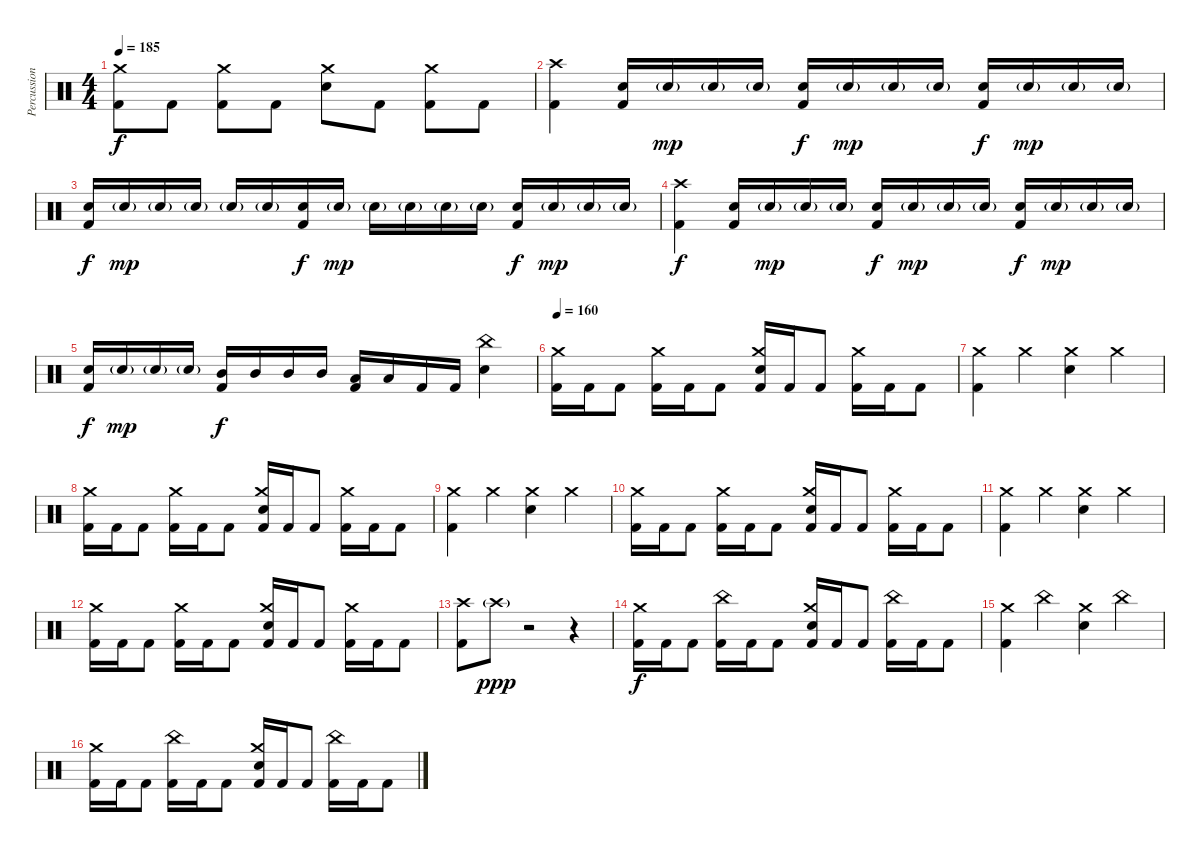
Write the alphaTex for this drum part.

\track ("Percussion" "Percussion") {instrument percussion}
\staff {score}
\articulation defaults
\ts (4 4)
\tempo 185
\clef neutral
\ks c
("Kick (hit) 2" "Crash medium (hit)").8{dy f} "Kick (hit) 2".8 ("Kick (hit) 2" "Crash medium (hit)").8 "Kick (hit) 2".8 ("Electric Snare (hit)" "Crash medium (hit)").8 "Kick (hit) 2".8 ("Kick (hit) 2" "Crash medium (hit)").8 "Kick (hit) 2".8 |
("Kick (hit) 2" "Crash high (hit)").4 ("Kick (hit) 2" "Electric Snare (hit)").16 "Electric Snare (hit)"{g}.16{dy mp} "Electric Snare (hit)"{g}.16 "Electric Snare (hit)"{g}.16 ("Kick (hit) 2" "Electric Snare (hit)").16{dy f} "Electric Snare (hit)"{g}.16{dy mp} "Electric Snare (hit)"{g}.16 "Electric Snare (hit)"{g}.16 ("Kick (hit) 2" "Electric Snare (hit)").16{dy f} "Electric Snare (hit)"{g}.16{dy mp} "Electric Snare (hit)"{g}.16 "Electric Snare (hit)"{g}.16 |
("Kick (hit) 2" "Electric Snare (hit)").16{dy f} "Electric Snare (hit)"{g}.16{dy mp} "Electric Snare (hit)"{g}.16 "Electric Snare (hit)"{g}.16 "Electric Snare (hit)"{g}.16 "Electric Snare (hit)"{g}.16 ("Kick (hit) 2" "Electric Snare (hit)").16{dy f} "Electric Snare (hit)"{g}.16{dy mp} "Electric Snare (hit)"{g}.16 "Electric Snare (hit)"{g}.16 "Electric Snare (hit)"{g}.16 "Electric Snare (hit)"{g}.16 ("Kick (hit) 2" "Electric Snare (hit)").16{dy f} "Electric Snare (hit)"{g}.16{dy mp} "Electric Snare (hit)"{g}.16 "Electric Snare (hit)"{g}.16 |
("Kick (hit) 2" "Crash high (hit)").4{dy f} ("Kick (hit) 2" "Electric Snare (hit)").16 "Electric Snare (hit)"{g}.16{dy mp} "Electric Snare (hit)"{g}.16 "Electric Snare (hit)"{g}.16 ("Kick (hit) 2" "Electric Snare (hit)").16{dy f} "Electric Snare (hit)"{g}.16{dy mp} "Electric Snare (hit)"{g}.16 "Electric Snare (hit)"{g}.16 ("Kick (hit) 2" "Electric Snare (hit)").16{dy f} "Electric Snare (hit)"{g}.16{dy mp} "Electric Snare (hit)"{g}.16 "Electric Snare (hit)"{g}.16 |
("Kick (hit) 2" "Electric Snare (hit)").16{dy f} "Electric Snare (hit)"{g}.16{dy mp} "Electric Snare (hit)"{g}.16 "Electric Snare (hit)"{g}.16 ("Kick (hit) 2" "Mid Tom (hit)").16{dy f} "Mid Tom (hit)".16 "Mid Tom (hit)".16 "Mid Tom (hit)".16 ("Kick (hit) 2" "Low Tom (hit)").16 "Low Tom (hit)".16 "Kick (hit) 2".16 "Kick (hit) 2".16 ("Electric Snare (hit)" "China (hit)").4 |
\tempo 160
("Kick (hit) 2" "Crash medium (hit)").16 "Kick (hit) 2".16 "Kick (hit) 2".8 ("Kick (hit) 2" "Crash medium (hit)").16 "Kick (hit) 2".16 "Kick (hit) 2".8 ("Kick (hit) 2" "Electric Snare (hit)" "Crash medium (hit)").16 "Kick (hit) 2".16 "Kick (hit) 2".8 ("Kick (hit) 2" "Crash medium (hit)").16 "Kick (hit) 2".16 "Kick (hit) 2".8 |
("Kick (hit) 2" "Crash medium (hit)").4 "Crash medium (hit)".4 ("Electric Snare (hit)" "Crash medium (hit)").4 "Crash medium (hit)".4 |
("Kick (hit) 2" "Crash medium (hit)").16 "Kick (hit) 2".16 "Kick (hit) 2".8 ("Kick (hit) 2" "Crash medium (hit)").16 "Kick (hit) 2".16 "Kick (hit) 2".8 ("Kick (hit) 2" "Electric Snare (hit)" "Crash medium (hit)").16 "Kick (hit) 2".16 "Kick (hit) 2".8 ("Kick (hit) 2" "Crash medium (hit)").16 "Kick (hit) 2".16 "Kick (hit) 2".8 |
("Kick (hit) 2" "Crash medium (hit)").4 "Crash medium (hit)".4 ("Electric Snare (hit)" "Crash medium (hit)").4 "Crash medium (hit)".4 |
("Kick (hit) 2" "Crash medium (hit)").16 "Kick (hit) 2".16 "Kick (hit) 2".8 ("Kick (hit) 2" "Crash medium (hit)").16 "Kick (hit) 2".16 "Kick (hit) 2".8 ("Kick (hit) 2" "Electric Snare (hit)" "Crash medium (hit)").16 "Kick (hit) 2".16 "Kick (hit) 2".8 ("Kick (hit) 2" "Crash medium (hit)").16 "Kick (hit) 2".16 "Kick (hit) 2".8 |
("Kick (hit) 2" "Crash medium (hit)").4 "Crash medium (hit)".4 ("Electric Snare (hit)" "Crash medium (hit)").4 "Crash medium (hit)".4 |
("Kick (hit) 2" "Crash medium (hit)").16 "Kick (hit) 2".16 "Kick (hit) 2".8 ("Kick (hit) 2" "Crash medium (hit)").16 "Kick (hit) 2".16 "Kick (hit) 2".8 ("Kick (hit) 2" "Electric Snare (hit)" "Crash medium (hit)").16 "Kick (hit) 2".16 "Kick (hit) 2".8 ("Kick (hit) 2" "Crash medium (hit)").16 "Kick (hit) 2".16 "Kick (hit) 2".8 |
("Kick (hit) 2" "Crash high (hit)").8 "Crash high (hit)"{g}.8{dy ppp} r.2 r.4 |
("Kick (hit) 2" "Crash medium (hit)").16{dy f} "Kick (hit) 2".16 "Kick (hit) 2".8 ("Kick (hit) 2" "China (hit)").16 "Kick (hit) 2".16 "Kick (hit) 2".8 ("Kick (hit) 2" "Electric Snare (hit)" "Crash medium (hit)").16 "Kick (hit) 2".16 "Kick (hit) 2".8 ("Kick (hit) 2" "China (hit)").16 "Kick (hit) 2".16 "Kick (hit) 2".8 |
("Kick (hit) 2" "Crash medium (hit)").4 "China (hit)".4 ("Electric Snare (hit)" "Crash medium (hit)").4 "China (hit)".4 |
("Kick (hit) 2" "Crash medium (hit)").16 "Kick (hit) 2".16 "Kick (hit) 2".8 ("Kick (hit) 2" "China (hit)").16 "Kick (hit) 2".16 "Kick (hit) 2".8 ("Kick (hit) 2" "Electric Snare (hit)" "Crash medium (hit)").16 "Kick (hit) 2".16 "Kick (hit) 2".8 ("Kick (hit) 2" "China (hit)").16 "Kick (hit) 2".16 "Kick (hit) 2".8
